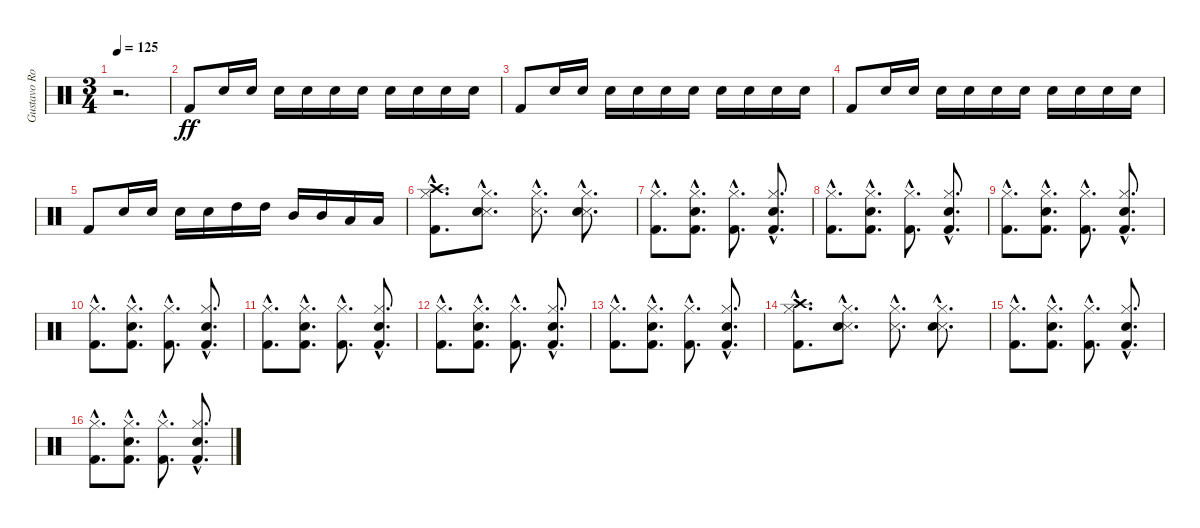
\track ("Gustavo Rowek 2" "Gustavo Ro") {instrument percussion}
\staff {score}
\articulation defaults
\ts (3 4)
\tempo 125
\clef neutral
\ks c
r.2{d dy ff} |
"Kick (hit) 2".8 "Electric Snare (hit)".16 "Electric Snare (hit)".16 "Electric Snare (hit)".16 "Electric Snare (hit)".16 "Electric Snare (hit)".16 "Electric Snare (hit)".16 "Electric Snare (hit)".16 "Electric Snare (hit)".16 "Electric Snare (hit)".16 "Electric Snare (hit)".16 |
"Kick (hit) 2".8 "Electric Snare (hit)".16 "Electric Snare (hit)".16 "Electric Snare (hit)".16 "Electric Snare (hit)".16 "Electric Snare (hit)".16 "Electric Snare (hit)".16 "Electric Snare (hit)".16 "Electric Snare (hit)".16 "Electric Snare (hit)".16 "Electric Snare (hit)".16 |
"Kick (hit) 2".8 "Electric Snare (hit)".16 "Electric Snare (hit)".16 "Electric Snare (hit)".16 "Electric Snare (hit)".16 "Electric Snare (hit)".16 "Electric Snare (hit)".16 "Electric Snare (hit)".16 "Electric Snare (hit)".16 "Electric Snare (hit)".16 "Electric Snare (hit)".16 |
"Kick (hit) 2".8 "Electric Snare (hit)".16 "Electric Snare (hit)".16 "Electric Snare (hit)".16 "Electric Snare (hit)".16 "High Tom (hit)".16 "High Tom (hit)".16 "Mid Tom (hit)".16 "Mid Tom (hit)".16 "Low Tom (hit)".16 "Low Tom (hit)".16 |
("Kick (hit) 2"{hac} "Hi-Hat (closed)"{hac} "Crash high (hit)"{hac}).8{d} ("Snare (side stick) 3"{hac} "Snare (hit) 2"{hac} "Hi-Hat (closed)"{hac}).8{d} ("Snare (side stick) 3"{hac} "Hi-Hat (closed)"{hac}).8{d} ("Snare (side stick) 3"{hac} "Snare (hit) 2"{hac} "Hi-Hat (closed)"{hac}).8{d} |
("Kick (hit) 2"{hac} "Hi-Hat (closed)"{hac}).8{d} ("Kick (hit) 2"{hac} "Snare (hit) 2"{hac} "Hi-Hat (closed)"{hac}).8{d} ("Kick (hit) 2"{hac} "Hi-Hat (closed)"{hac}).8{d} ("Kick (hit) 2"{hac} "Snare (hit) 2"{hac} "Hi-Hat (closed)"{hac}).8{d} |
("Kick (hit) 2"{hac} "Hi-Hat (closed)"{hac}).8{d} ("Kick (hit) 2"{hac} "Snare (hit) 2"{hac} "Hi-Hat (closed)"{hac}).8{d} ("Kick (hit) 2"{hac} "Hi-Hat (closed)"{hac}).8{d} ("Kick (hit) 2"{hac} "Snare (hit) 2"{hac} "Hi-Hat (closed)"{hac}).8{d} |
("Kick (hit) 2"{hac} "Hi-Hat (closed)"{hac}).8{d} ("Kick (hit) 2"{hac} "Snare (hit) 2"{hac} "Hi-Hat (closed)"{hac}).8{d} ("Kick (hit) 2"{hac} "Hi-Hat (closed)"{hac}).8{d} ("Kick (hit) 2"{hac} "Snare (hit) 2"{hac} "Hi-Hat (closed)"{hac}).8{d} |
("Kick (hit) 2"{hac} "Hi-Hat (closed)"{hac}).8{d} ("Kick (hit) 2"{hac} "Snare (hit) 2"{hac} "Hi-Hat (closed)"{hac}).8{d} ("Kick (hit) 2"{hac} "Hi-Hat (closed)"{hac}).8{d} ("Kick (hit) 2"{hac} "Snare (hit) 2"{hac} "Hi-Hat (closed)"{hac}).8{d} |
("Kick (hit) 2"{hac} "Hi-Hat (closed)"{hac}).8{d} ("Kick (hit) 2"{hac} "Snare (hit) 2"{hac} "Hi-Hat (closed)"{hac}).8{d} ("Kick (hit) 2"{hac} "Hi-Hat (closed)"{hac}).8{d} ("Kick (hit) 2"{hac} "Snare (hit) 2"{hac} "Hi-Hat (closed)"{hac}).8{d} |
("Kick (hit) 2"{hac} "Hi-Hat (closed)"{hac}).8{d} ("Kick (hit) 2"{hac} "Snare (hit) 2"{hac} "Hi-Hat (closed)"{hac}).8{d} ("Kick (hit) 2"{hac} "Hi-Hat (closed)"{hac}).8{d} ("Kick (hit) 2"{hac} "Snare (hit) 2"{hac} "Hi-Hat (closed)"{hac}).8{d} |
("Kick (hit) 2"{hac} "Hi-Hat (closed)"{hac}).8{d} ("Kick (hit) 2"{hac} "Snare (hit) 2"{hac} "Hi-Hat (closed)"{hac}).8{d} ("Kick (hit) 2"{hac} "Hi-Hat (closed)"{hac}).8{d} ("Kick (hit) 2"{hac} "Snare (hit) 2"{hac} "Hi-Hat (closed)"{hac}).8{d} |
("Kick (hit) 2"{hac} "Hi-Hat (closed)"{hac} "Crash high (hit)"{hac}).8{d} ("Snare (side stick) 3"{hac} "Snare (hit) 2"{hac} "Hi-Hat (closed)"{hac}).8{d} ("Snare (side stick) 3"{hac} "Hi-Hat (closed)"{hac}).8{d} ("Snare (side stick) 3"{hac} "Snare (hit) 2"{hac} "Hi-Hat (closed)"{hac}).8{d} |
("Kick (hit) 2"{hac} "Hi-Hat (closed)"{hac}).8{d} ("Kick (hit) 2"{hac} "Snare (hit) 2"{hac} "Hi-Hat (closed)"{hac}).8{d} ("Kick (hit) 2"{hac} "Hi-Hat (closed)"{hac}).8{d} ("Kick (hit) 2"{hac} "Snare (hit) 2"{hac} "Hi-Hat (closed)"{hac}).8{d} |
("Kick (hit) 2"{hac} "Hi-Hat (closed)"{hac}).8{d} ("Kick (hit) 2"{hac} "Snare (hit) 2"{hac} "Hi-Hat (closed)"{hac}).8{d} ("Kick (hit) 2"{hac} "Hi-Hat (closed)"{hac}).8{d} ("Kick (hit) 2"{hac} "Snare (hit) 2"{hac} "Hi-Hat (closed)"{hac}).8{d}
